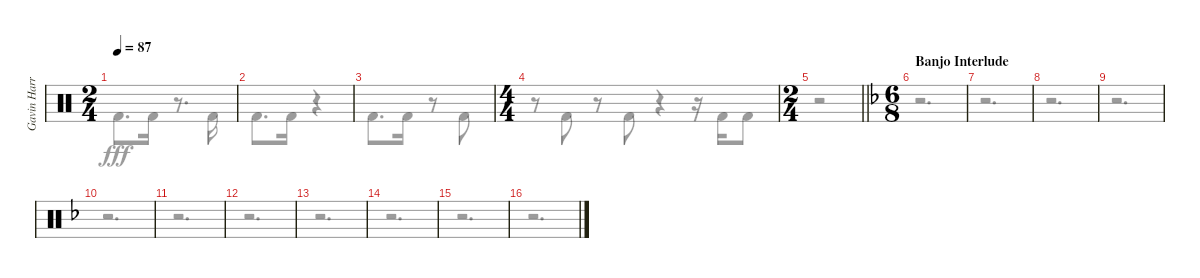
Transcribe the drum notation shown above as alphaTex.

\track ("Gavin Harrison Bass Pedal" "Gavin Harr") {instrument percussion}
\staff {score}
\articulation defaults
\voice
\ts (2 4)
\tempo 87
\clef neutral
\ks aminor
|
|
|
\ts (4 4)
|
\ts (2 4)
\barLineRight lightlight
|
\ts (6 8)
\section ("" "Banjo Interlude")
\ks f
|
|
|
|
|
|
|
|
|
|
\voice
\clef neutral
\ks aminor "Kick (hit) 2".8{d dy fff} "Kick (hit) 2".16
r.8{d} "Kick (hit) 2".16 |
"Kick (hit) 2".8{d} "Kick (hit) 2".16 r.4 |
"Kick (hit) 2".8{d} "Kick (hit) 2".16 r.8 "Kick (hit) 2".8 |
r.8 "Kick (hit) 2".8 r.8 "Kick (hit) 2".8 r.4 r.16 "Kick (hit) 2".16 "Kick (hit) 2".8 |
\barLineRight lightlight
r.2 |
\ks f
r.2{d} |
r.2{d} |
r.2{d} |
r.2{d} |
r.2{d} |
r.2{d} |
r.2{d} |
r.2{d} |
r.2{d} |
r.2{d} |
r.2{d}
